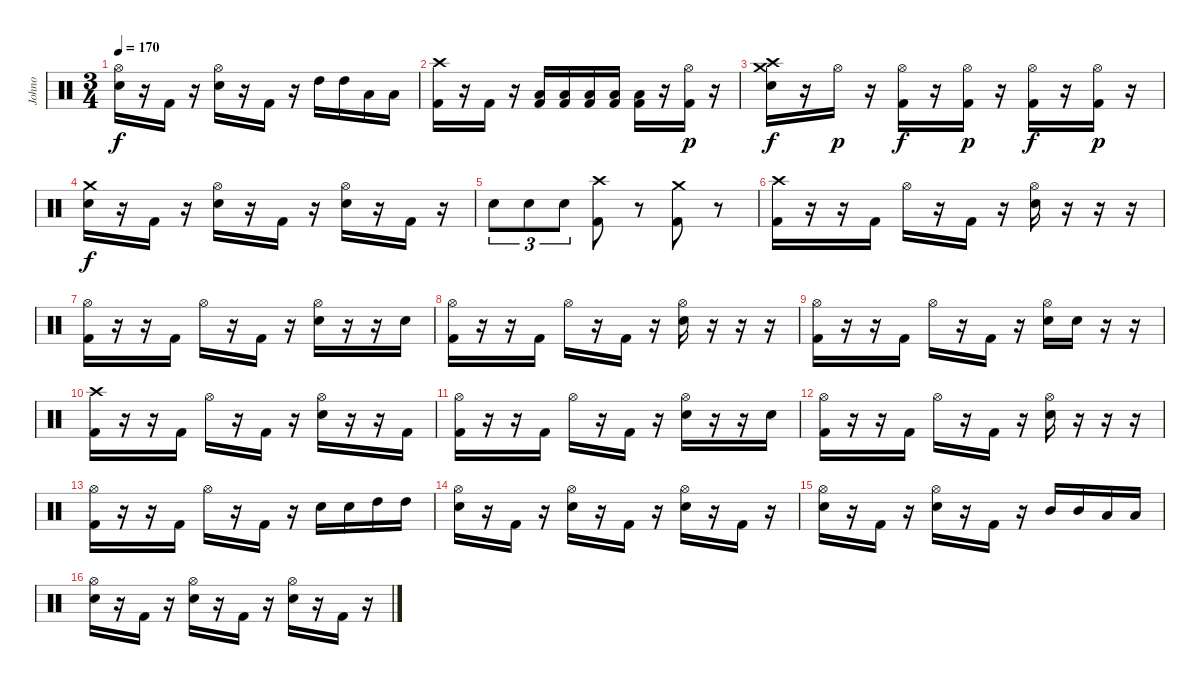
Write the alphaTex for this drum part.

\track ("Johno" "Johno") {instrument percussion}
\staff {score}
\articulation defaults
\ts (3 4)
\tempo 170
\clef neutral
\ks c
("Hi-Hat (open)" "Electric Snare (hit)").16{dy f} r.16 "Kick (hit) 2".16 r.16 ("Hi-Hat (open)" "Electric Snare (hit)").16 r.16 "Kick (hit) 2".16 r.16 "High Tom (hit)".16 "High Tom (hit)".16 "Low Floor Tom (hit)".16 "Low Floor Tom (hit)".16 |
("Crash high (hit)" "Kick (hit) 2").16 r.16 "Kick (hit) 2".16 r.16 ("Low Floor Tom (hit)" "Kick (hit) 2").16 ("Low Floor Tom (hit)" "Kick (hit) 2").16 ("Low Floor Tom (hit)" "Kick (hit) 2").16 ("Low Floor Tom (hit)" "Kick (hit) 2").16 ("Low Floor Tom (hit)" "Kick (hit) 2").16 r.16 ("Hi-Hat (open)" "Kick (hit) 2").16{dy p} r.16 |
("Crash medium (hit)" "Crash high (hit)" "Electric Snare (hit)").16{dy f} r.16 "Hi-Hat (open)".16{dy p} r.16 ("Hi-Hat (open)" "Kick (hit) 2").16{dy f} r.16 ("Hi-Hat (open)" "Kick (hit) 2").16{dy p} r.16 ("Hi-Hat (open)" "Kick (hit) 2").16{dy f} r.16 ("Hi-Hat (open)" "Kick (hit) 2").16{dy p} r.16 |
("Crash medium (hit)" "Electric Snare (hit)").16{dy f} r.16 "Kick (hit) 2".16 r.16 ("Hi-Hat (open)" "Electric Snare (hit)").16 r.16 "Kick (hit) 2".16 r.16 ("Hi-Hat (open)" "Electric Snare (hit)").16 r.16 "Kick (hit) 2".16 r.16 |
"Electric Snare (hit)".8{tu (3 2)} "Electric Snare (hit)".8{tu (3 2)} "Electric Snare (hit)".8{tu (3 2)} ("Crash high (hit)" "Kick (hit) 2").8 r.8 ("Crash medium (hit)" "Kick (hit) 2").8 r.8 |
("Crash high (hit)" "Kick (hit) 2").16 r.16 r.16 "Kick (hit) 2".16 "Hi-Hat (open)".16 r.16 "Kick (hit) 2".16 r.16 ("Hi-Hat (open)" "Electric Snare (hit)").16 r.16 r.16 r.16 |
("Hi-Hat (open)" "Kick (hit) 2").16 r.16 r.16 "Kick (hit) 2".16 "Hi-Hat (open)".16 r.16 "Kick (hit) 2".16 r.16 ("Hi-Hat (open)" "Electric Snare (hit)").16 r.16 r.16 "Electric Snare (hit)".16 |
("Hi-Hat (open)" "Kick (hit) 2").16 r.16 r.16 "Kick (hit) 2".16 "Hi-Hat (open)".16 r.16 "Kick (hit) 2".16 r.16 ("Hi-Hat (open)" "Electric Snare (hit)").16 r.16 r.16 r.16 |
("Hi-Hat (open)" "Kick (hit) 2").16 r.16 r.16 "Kick (hit) 2".16 "Hi-Hat (open)".16 r.16 "Kick (hit) 2".16 r.16 ("Hi-Hat (open)" "Electric Snare (hit)").16 "Electric Snare (hit)".16 r.16 r.16 |
("Crash high (hit)" "Kick (hit) 2").16 r.16 r.16 "Kick (hit) 2".16 "Hi-Hat (open)".16 r.16 "Kick (hit) 2".16 r.16 ("Hi-Hat (open)" "Electric Snare (hit)").16 r.16 r.16 "Kick (hit) 2".16 |
("Hi-Hat (open)" "Kick (hit) 2").16 r.16 r.16 "Kick (hit) 2".16 "Hi-Hat (open)".16 r.16 "Kick (hit) 2".16 r.16 ("Hi-Hat (open)" "Electric Snare (hit)").16 r.16 r.16 "Electric Snare (hit)".16 |
("Hi-Hat (open)" "Kick (hit) 2").16 r.16 r.16 "Kick (hit) 2".16 "Hi-Hat (open)".16 r.16 "Kick (hit) 2".16 r.16 ("Hi-Hat (open)" "Electric Snare (hit)").16 r.16 r.16 r.16 |
("Hi-Hat (open)" "Kick (hit) 2").16 r.16 r.16 "Kick (hit) 2".16 "Hi-Hat (open)".16 r.16 "Kick (hit) 2".16 r.16 "Electric Snare (hit)".16 "Electric Snare (hit)".16 "High Tom (hit)".16 "High Tom (hit)".16 |
("Hi-Hat (open)" "Electric Snare (hit)").16 r.16 "Kick (hit) 2".16 r.16 ("Hi-Hat (open)" "Electric Snare (hit)").16 r.16 "Kick (hit) 2".16 r.16 ("Hi-Hat (open)" "Electric Snare (hit)").16 r.16 "Kick (hit) 2".16 r.16 |
("Hi-Hat (open)" "Electric Snare (hit)").16 r.16 "Kick (hit) 2".16 r.16 ("Hi-Hat (open)" "Electric Snare (hit)").16 r.16 "Kick (hit) 2".16 r.16 "Mid Tom (hit)".16 "Mid Tom (hit)".16 "Low Tom (hit)".16 "Low Tom (hit)".16 |
("Hi-Hat (open)" "Electric Snare (hit)").16 r.16 "Kick (hit) 2".16 r.16 ("Hi-Hat (open)" "Electric Snare (hit)").16 r.16 "Kick (hit) 2".16 r.16 ("Hi-Hat (open)" "Electric Snare (hit)").16 r.16 "Kick (hit) 2".16 r.16
